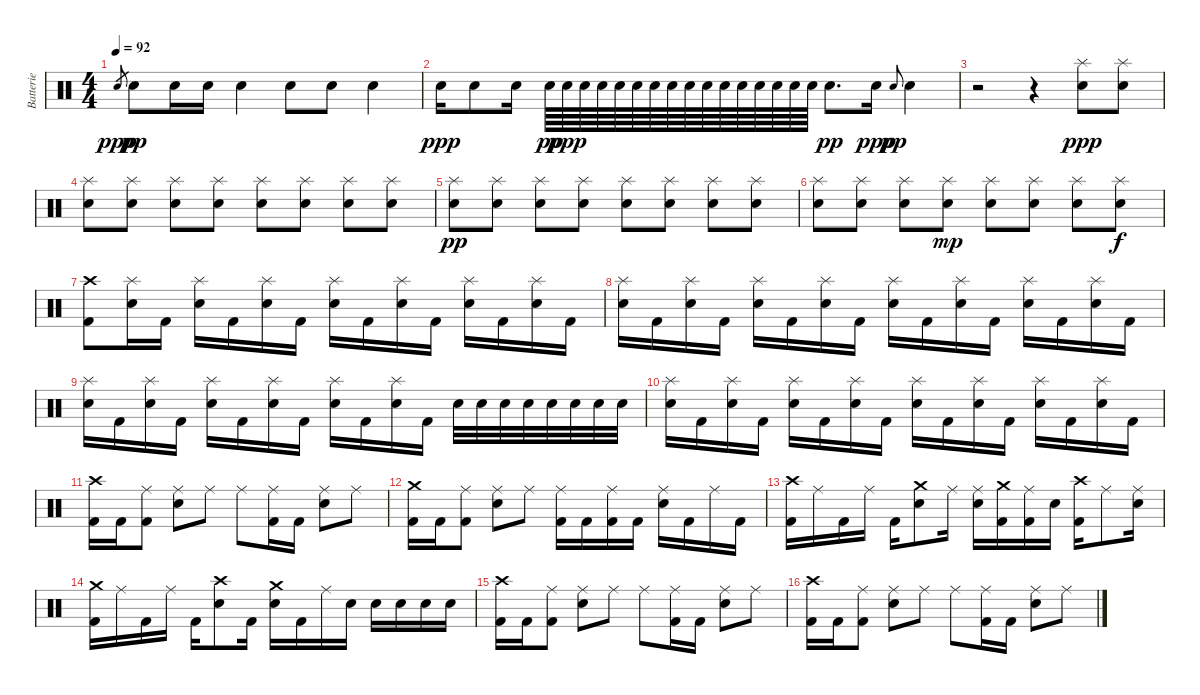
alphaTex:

\track ("Batterie" "Batterie") {instrument percussion}
\staff {score}
\articulation defaults
\ts (4 4)
\tempo 92
\clef neutral
\ks c "Electric Snare (hit)".8{gr dy ppp} "Electric Snare (hit)".8{dy pp} "Electric Snare (hit)".16 "Electric Snare (hit)".16 "Electric Snare (hit)".4 "Electric Snare (hit)".8 "Electric Snare (hit)".8 "Electric Snare (hit)".4
|
"Electric Snare (hit)".16{dy ppp} "Electric Snare (hit)".8 "Electric Snare (hit)".16 "Electric Snare (hit)".64{dy pp} "Electric Snare (hit)".64{dy ppp} "Electric Snare (hit)".64 "Electric Snare (hit)".64 "Electric Snare (hit)".64 "Electric Snare (hit)".64 "Electric Snare (hit)".64 "Electric Snare (hit)".64 "Electric Snare (hit)".64 "Electric Snare (hit)".64 "Electric Snare (hit)".64 "Electric Snare (hit)".64 "Electric Snare (hit)".64 "Electric Snare (hit)".64 "Electric Snare (hit)".64 "Electric Snare (hit)".64 "Electric Snare (hit)".8{d dy pp} "Electric Snare (hit)".16{dy ppp} "Electric Snare (hit)".8{gr onbeat dy pp} "Electric Snare (hit)".4 |
r.2 r.4 ("Splash (hit)" "Electric Snare (hit)").8{dy ppp} ("Splash (hit)" "Electric Snare (hit)").8 |
("Splash (hit)" "Electric Snare (hit)").8 ("Splash (hit)" "Electric Snare (hit)").8 ("Splash (hit)" "Electric Snare (hit)").8 ("Splash (hit)" "Electric Snare (hit)").8 ("Splash (hit)" "Electric Snare (hit)").8 ("Splash (hit)" "Electric Snare (hit)").8 ("Splash (hit)" "Electric Snare (hit)").8 ("Splash (hit)" "Electric Snare (hit)").8 |
("Splash (hit)" "Electric Snare (hit)").8{dy pp} ("Splash (hit)" "Electric Snare (hit)").8 ("Splash (hit)" "Electric Snare (hit)").8 ("Splash (hit)" "Electric Snare (hit)").8 ("Splash (hit)" "Electric Snare (hit)").8 ("Splash (hit)" "Electric Snare (hit)").8 ("Splash (hit)" "Electric Snare (hit)").8 ("Splash (hit)" "Electric Snare (hit)").8 |
("Splash (hit)" "Electric Snare (hit)").8 ("Splash (hit)" "Electric Snare (hit)").8 ("Splash (hit)" "Electric Snare (hit)").8 ("Splash (hit)" "Electric Snare (hit)").8{dy mp} ("Splash (hit)" "Electric Snare (hit)").8 ("Splash (hit)" "Electric Snare (hit)").8 ("Splash (hit)" "Electric Snare (hit)").8 ("Splash (hit)" "Electric Snare (hit)").8{dy f} |
("Crash high (hit)" "Kick (hit) 2").8 ("Splash (hit)" "Electric Snare (hit)").16 "Kick (hit) 2".16 ("Splash (hit)" "Electric Snare (hit)").16 "Kick (hit) 2".16 ("Splash (hit)" "Electric Snare (hit)").16 "Kick (hit) 2".16 ("Splash (hit)" "Electric Snare (hit)").16 "Kick (hit) 2".16 ("Splash (hit)" "Electric Snare (hit)").16 "Kick (hit) 2".16 ("Splash (hit)" "Electric Snare (hit)").16 "Kick (hit) 2".16 ("Splash (hit)" "Electric Snare (hit)").16 "Kick (hit) 2".16 |
("Splash (hit)" "Electric Snare (hit)").16 "Kick (hit) 2".16 ("Splash (hit)" "Electric Snare (hit)").16 "Kick (hit) 2".16 ("Splash (hit)" "Electric Snare (hit)").16 "Kick (hit) 2".16 ("Splash (hit)" "Electric Snare (hit)").16 "Kick (hit) 2".16 ("Splash (hit)" "Electric Snare (hit)").16 "Kick (hit) 2".16 ("Splash (hit)" "Electric Snare (hit)").16 "Kick (hit) 2".16 ("Splash (hit)" "Electric Snare (hit)").16 "Kick (hit) 2".16 ("Splash (hit)" "Electric Snare (hit)").16 "Kick (hit) 2".16 |
("Splash (hit)" "Electric Snare (hit)").16 "Kick (hit) 2".16 ("Splash (hit)" "Electric Snare (hit)").16 "Kick (hit) 2".16 ("Splash (hit)" "Electric Snare (hit)").16 "Kick (hit) 2".16 ("Splash (hit)" "Electric Snare (hit)").16 "Kick (hit) 2".16 ("Splash (hit)" "Electric Snare (hit)").16 "Kick (hit) 2".16 ("Splash (hit)" "Electric Snare (hit)").16 "Kick (hit) 2".16 "Electric Snare (hit)".32 "Electric Snare (hit)".32 "Electric Snare (hit)".32 "Electric Snare (hit)".32 "Electric Snare (hit)".32 "Electric Snare (hit)".32 "Electric Snare (hit)".32 "Electric Snare (hit)".32 |
("Splash (hit)" "Electric Snare (hit)").16 "Kick (hit) 2".16 ("Splash (hit)" "Electric Snare (hit)").16 "Kick (hit) 2".16 ("Splash (hit)" "Electric Snare (hit)").16 "Kick (hit) 2".16 ("Splash (hit)" "Electric Snare (hit)").16 "Kick (hit) 2".16 ("Splash (hit)" "Electric Snare (hit)").16 "Kick (hit) 2".16 ("Splash (hit)" "Electric Snare (hit)").16 "Kick (hit) 2".16 ("Splash (hit)" "Electric Snare (hit)").16 "Kick (hit) 2".16 ("Splash (hit)" "Electric Snare (hit)").16 "Kick (hit) 2".16 |
("Crash high (hit)" "Kick (hit) 2").16 "Kick (hit) 2".16 ("Ride (middle)" "Kick (hit) 2").8 ("Ride (middle)" "Electric Snare (hit)").8 "Ride (middle)".8 "Ride (middle)".8 ("Ride (middle)" "Kick (hit) 2").16 "Kick (hit) 2".16 ("Ride (middle)" "Electric Snare (hit)").8 "Ride (middle)".8 |
("Crash medium (hit)" "Kick (hit) 2").16 "Kick (hit) 2".16 ("Ride (middle)" "Kick (hit) 2").8 ("Ride (middle)" "Electric Snare (hit)").8 "Ride (middle)".8 ("Ride (middle)" "Kick (hit) 2").16 "Kick (hit) 2".16 ("Ride (middle)" "Kick (hit) 2").16 "Kick (hit) 2".16 ("Ride (middle)" "Electric Snare (hit)").16 "Kick (hit) 2".16 "Ride (middle)".16 "Kick (hit) 2".16 |
("Crash high (hit)" "Kick (hit) 2").16 "Ride (middle)".16 "Kick (hit) 2".16 "Ride (middle)".16 "Kick (hit) 2".16 ("Crash medium (hit)" "Electric Snare (hit)").8 "Ride (middle)".16 ("Ride (middle)" "Electric Snare (hit)").16 ("Crash medium (hit)" "Kick (hit) 2").16 ("Ride (middle)" "Kick (hit) 2").16 "Electric Snare (hit)".16 ("Crash high (hit)" "Kick (hit) 2").16 "Ride (middle)".8 ("Ride (middle)" "Electric Snare (hit)").16 |
("Crash medium (hit)" "Kick (hit) 2").16 "Ride (middle)".16 "Kick (hit) 2".16 "Ride (middle)".16 "Kick (hit) 2".16 ("Crash high (hit)" "Electric Snare (hit)").8 "Kick (hit) 2".16 ("Crash medium (hit)" "Electric Snare (hit)").16 "Kick (hit) 2".16 "Ride (middle)".16 "Electric Snare (hit)".16 "Electric Snare (hit)".16 "Electric Snare (hit)".16 "Electric Snare (hit)".16 "Electric Snare (hit)".16 |
("Crash high (hit)" "Kick (hit) 2").16 "Kick (hit) 2".16 ("Ride (middle)" "Kick (hit) 2").8 ("Ride (middle)" "Electric Snare (hit)").8 "Ride (middle)".8 "Ride (middle)".8 ("Ride (middle)" "Kick (hit) 2").16 "Kick (hit) 2".16 ("Ride (middle)" "Electric Snare (hit)").8 "Ride (middle)".8 |
("Crash high (hit)" "Kick (hit) 2").16 "Kick (hit) 2".16 ("Ride (middle)" "Kick (hit) 2").8 ("Ride (middle)" "Electric Snare (hit)").8 "Ride (middle)".8 "Ride (middle)".8 ("Ride (middle)" "Kick (hit) 2").16 "Kick (hit) 2".16 ("Ride (middle)" "Electric Snare (hit)").8 "Ride (middle)".8
